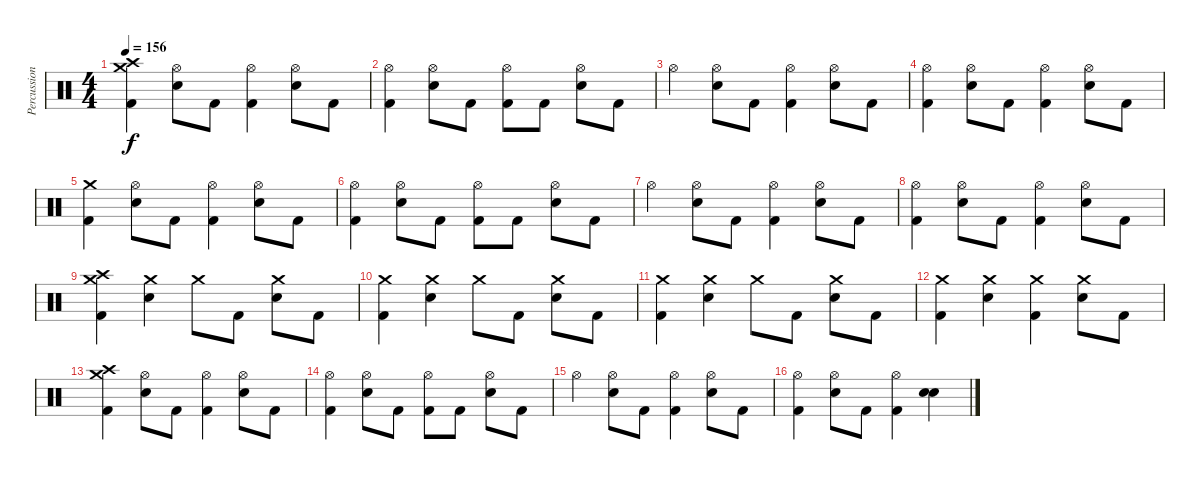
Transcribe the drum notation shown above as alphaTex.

\track ("Percussion" "Percussion") {instrument percussion}
\staff {score}
\articulation defaults
\ts (4 4)
\tempo 156
\clef neutral
\ks c
("Crash medium (hit)" "Crash high (hit)" "Kick (hit) 2").4{dy f} ("Hi-Hat (open)" "Electric Snare (hit)").8 "Kick (hit) 2".8 ("Hi-Hat (open)" "Kick (hit) 2").4 ("Hi-Hat (open)" "Electric Snare (hit)").8 "Kick (hit) 2".8 |
("Hi-Hat (open)" "Kick (hit) 2").4 ("Hi-Hat (open)" "Electric Snare (hit)").8 "Kick (hit) 2".8 ("Hi-Hat (open)" "Kick (hit) 2").8 "Kick (hit) 2".8 ("Hi-Hat (open)" "Electric Snare (hit)").8 "Kick (hit) 2".8 |
"Hi-Hat (open)".4 ("Hi-Hat (open)" "Electric Snare (hit)").8 "Kick (hit) 2".8 ("Hi-Hat (open)" "Kick (hit) 2").4 ("Hi-Hat (open)" "Electric Snare (hit)").8 "Kick (hit) 2".8 |
("Hi-Hat (open)" "Kick (hit) 2").4 ("Hi-Hat (open)" "Electric Snare (hit)").8 "Kick (hit) 2".8 ("Hi-Hat (open)" "Kick (hit) 2").4 ("Hi-Hat (open)" "Electric Snare (hit)").8 "Kick (hit) 2".8 |
("Crash medium (hit)" "Kick (hit) 2").4 ("Hi-Hat (open)" "Electric Snare (hit)").8 "Kick (hit) 2".8 ("Hi-Hat (open)" "Kick (hit) 2").4 ("Hi-Hat (open)" "Electric Snare (hit)").8 "Kick (hit) 2".8 |
("Hi-Hat (open)" "Kick (hit) 2").4 ("Hi-Hat (open)" "Electric Snare (hit)").8 "Kick (hit) 2".8 ("Hi-Hat (open)" "Kick (hit) 2").8 "Kick (hit) 2".8 ("Hi-Hat (open)" "Electric Snare (hit)").8 "Kick (hit) 2".8 |
"Hi-Hat (open)".4 ("Hi-Hat (open)" "Electric Snare (hit)").8 "Kick (hit) 2".8 ("Hi-Hat (open)" "Kick (hit) 2").4 ("Hi-Hat (open)" "Electric Snare (hit)").8 "Kick (hit) 2".8 |
("Hi-Hat (open)" "Kick (hit) 2").4 ("Hi-Hat (open)" "Electric Snare (hit)").8 "Kick (hit) 2".8 ("Hi-Hat (open)" "Kick (hit) 2").4 ("Hi-Hat (open)" "Electric Snare (hit)").8 "Kick (hit) 2".8 |
("Crash high (hit)" "Crash medium (hit)" "Kick (hit) 2").4 ("Crash medium (hit)" "Electric Snare (hit)").4 "Crash medium (hit)".8 "Kick (hit) 2".8 ("Crash medium (hit)" "Electric Snare (hit)").8 "Kick (hit) 2".8 |
("Crash medium (hit)" "Kick (hit) 2").4 ("Crash medium (hit)" "Electric Snare (hit)").4 "Crash medium (hit)".8 "Kick (hit) 2".8 ("Crash medium (hit)" "Electric Snare (hit)").8 "Kick (hit) 2".8 |
("Crash medium (hit)" "Kick (hit) 2").4 ("Crash medium (hit)" "Electric Snare (hit)").4 "Crash medium (hit)".8 "Kick (hit) 2".8 ("Crash medium (hit)" "Electric Snare (hit)").8 "Kick (hit) 2".8 |
("Crash medium (hit)" "Kick (hit) 2").4 ("Crash medium (hit)" "Electric Snare (hit)").4 ("Crash medium (hit)" "Kick (hit) 2").4 ("Crash medium (hit)" "Electric Snare (hit)").8 "Kick (hit) 2".8 |
("Crash medium (hit)" "Crash high (hit)" "Kick (hit) 2").4 ("Hi-Hat (open)" "Electric Snare (hit)").8 "Kick (hit) 2".8 ("Hi-Hat (open)" "Kick (hit) 2").4 ("Hi-Hat (open)" "Electric Snare (hit)").8 "Kick (hit) 2".8 |
("Hi-Hat (open)" "Kick (hit) 2").4 ("Hi-Hat (open)" "Electric Snare (hit)").8 "Kick (hit) 2".8 ("Hi-Hat (open)" "Kick (hit) 2").8 "Kick (hit) 2".8 ("Hi-Hat (open)" "Electric Snare (hit)").8 "Kick (hit) 2".8 |
"Hi-Hat (open)".4 ("Hi-Hat (open)" "Electric Snare (hit)").8 "Kick (hit) 2".8 ("Hi-Hat (open)" "Kick (hit) 2").4 ("Hi-Hat (open)" "Electric Snare (hit)").8 "Kick (hit) 2".8 |
("Hi-Hat (open)" "Kick (hit) 2").4 ("Hi-Hat (open)" "Electric Snare (hit)").8 "Kick (hit) 2".8 ("Hi-Hat (open)" "Kick (hit) 2").4 ("Electric Snare (hit)" "Electric Snare (hit)").4{bd 240}
